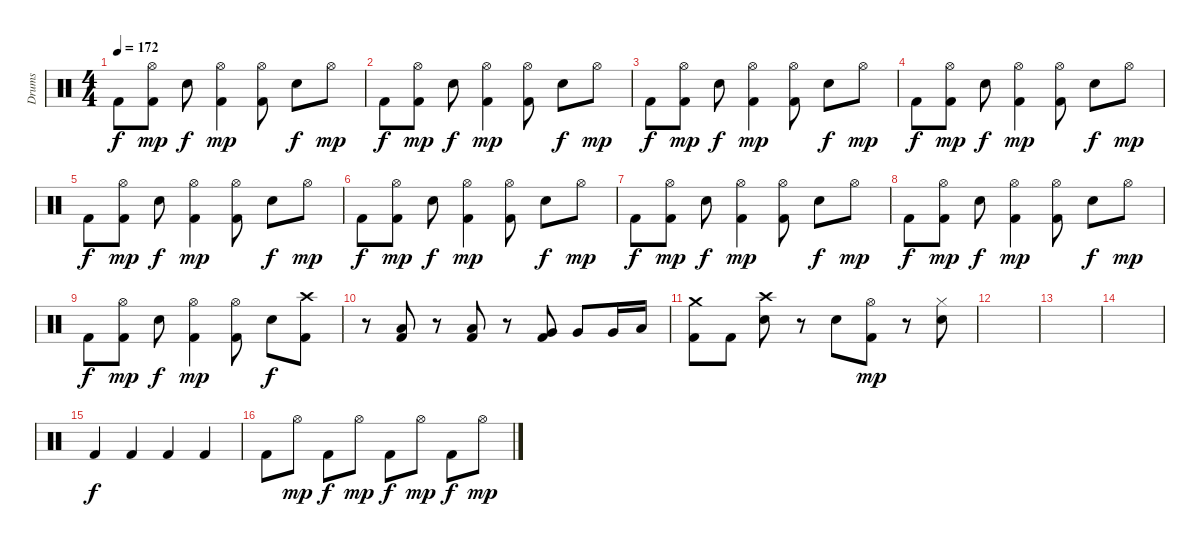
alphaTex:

\track ("Drums" "Drums") {instrument percussion}
\staff {score}
\articulation defaults
\ts (4 4)
\tempo 172
\clef neutral
\ks c "Kick (hit) 2".8{dy f}
("Hi-Hat (open)" "Kick (hit) 2").8{dy mp} "Snare (hit) 2".8{dy f} ("Hi-Hat (open)" "Kick (hit) 2").4{dy mp} ("Hi-Hat (open)" "Kick (hit) 2").8 "Snare (hit) 2".8{dy f} "Hi-Hat (open)".8{dy mp} |
"Kick (hit) 2".8{dy f} ("Hi-Hat (open)" "Kick (hit) 2").8{dy mp} "Snare (hit) 2".8{dy f} ("Hi-Hat (open)" "Kick (hit) 2").4{dy mp} ("Hi-Hat (open)" "Kick (hit) 2").8 "Snare (hit) 2".8{dy f} "Hi-Hat (open)".8{dy mp} |
"Kick (hit) 2".8{dy f} ("Hi-Hat (open)" "Kick (hit) 2").8{dy mp} "Snare (hit) 2".8{dy f} ("Hi-Hat (open)" "Kick (hit) 2").4{dy mp} ("Hi-Hat (open)" "Kick (hit) 2").8 "Snare (hit) 2".8{dy f} "Hi-Hat (open)".8{dy mp} |
"Kick (hit) 2".8{dy f} ("Hi-Hat (open)" "Kick (hit) 2").8{dy mp} "Snare (hit) 2".8{dy f} ("Hi-Hat (open)" "Kick (hit) 2").4{dy mp} ("Hi-Hat (open)" "Kick (hit) 2").8 "Snare (hit) 2".8{dy f} "Hi-Hat (open)".8{dy mp} |
"Kick (hit) 2".8{dy f} ("Hi-Hat (open)" "Kick (hit) 2").8{dy mp} "Snare (hit) 2".8{dy f} ("Hi-Hat (open)" "Kick (hit) 2").4{dy mp} ("Hi-Hat (open)" "Kick (hit) 2").8 "Snare (hit) 2".8{dy f} "Hi-Hat (open)".8{dy mp} |
"Kick (hit) 2".8{dy f} ("Hi-Hat (open)" "Kick (hit) 2").8{dy mp} "Snare (hit) 2".8{dy f} ("Hi-Hat (open)" "Kick (hit) 2").4{dy mp} ("Hi-Hat (open)" "Kick (hit) 2").8 "Snare (hit) 2".8{dy f} "Hi-Hat (open)".8{dy mp} |
"Kick (hit) 2".8{dy f} ("Hi-Hat (open)" "Kick (hit) 2").8{dy mp} "Snare (hit) 2".8{dy f} ("Hi-Hat (open)" "Kick (hit) 2").4{dy mp} ("Hi-Hat (open)" "Kick (hit) 2").8 "Snare (hit) 2".8{dy f} "Hi-Hat (open)".8{dy mp} |
"Kick (hit) 2".8{dy f} ("Hi-Hat (open)" "Kick (hit) 2").8{dy mp} "Snare (hit) 2".8{dy f} ("Hi-Hat (open)" "Kick (hit) 2").4{dy mp} ("Hi-Hat (open)" "Kick (hit) 2").8 "Snare (hit) 2".8{dy f} "Hi-Hat (open)".8{dy mp} |
"Kick (hit) 2".8{dy f} ("Hi-Hat (open)" "Kick (hit) 2").8{dy mp} "Snare (hit) 2".8{dy f} ("Hi-Hat (open)" "Kick (hit) 2").4{dy mp} ("Hi-Hat (open)" "Kick (hit) 2").8 "Snare (hit) 2".8{dy f} ("Crash high (hit)" "Kick (hit) 2").8 |
r.8 ("Low Tom (hit)" "Kick (hit) 2").8 r.8 ("Low Tom (hit)" "Kick (hit) 2").8 r.8 ("Very Low Tom (hit)" "Kick (hit) 2").8 "Very Low Tom (hit)".8 "Very Low Tom (hit)".16 "Low Floor Tom (hit)".16 |
("Crash medium (hit)" "Kick (hit) 2").8 "Kick (hit) 2".8 ("Crash high (hit)" "Snare (hit) 2").8 r.8 "Snare (hit) 2".8 ("Hi-Hat (open)" "Kick (hit) 2").8{dy mp} r.8 ("Hi-Hat (closed)" "Snare (hit) 2").8 |
|
|
|
"Kick (hit) 2".4{dy f} "Kick (hit) 2".4 "Kick (hit) 2".4 "Kick (hit) 2".4 |
"Kick (hit) 2".8 "Hi-Hat (open)".8{dy mp} "Kick (hit) 2".8{dy f} "Hi-Hat (open)".8{dy mp} "Kick (hit) 2".8{dy f} "Hi-Hat (open)".8{dy mp} "Kick (hit) 2".8{dy f} "Hi-Hat (open)".8{dy mp}
